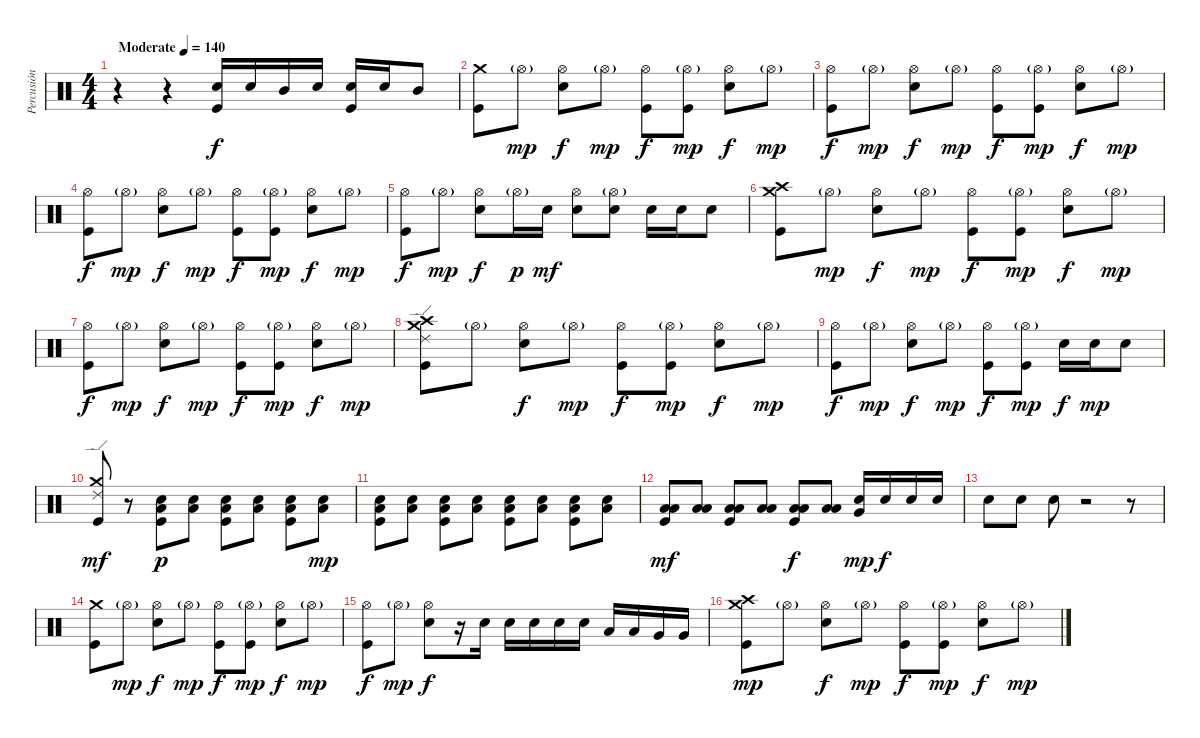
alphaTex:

\track ("Percusión" "Percusión") {instrument percussion}
\staff {score}
\articulation defaults
\ts (4 4)
\tempo (140 "Moderate")
\clef neutral
\ks c
r.4{dy f} r.4 ("Electric Snare (hit)" "Kick (hit)").16 "Electric Snare (hit)".16 "Mid Tom (hit)".16 "Electric Snare (hit)".16 ("Electric Snare (hit)" "Kick (hit)").16 "Electric Snare (hit)".16 "Mid Tom (hit)".8 |
("Crash medium (hit)" "Kick (hit)").8 "Hi-Hat (open)"{g}.8{dy mp} ("Hi-Hat (open)" "Electric Snare (hit)").8{dy f} "Hi-Hat (open)"{g}.8{dy mp} ("Hi-Hat (open)" "Kick (hit)").8{dy f} ("Hi-Hat (open)"{g} "Kick (hit)").8{dy mp} ("Hi-Hat (open)" "Electric Snare (hit)").8{dy f} "Hi-Hat (open)"{g}.8{dy mp} |
("Hi-Hat (open)" "Kick (hit)").8{dy f} "Hi-Hat (open)"{g}.8{dy mp} ("Hi-Hat (open)" "Electric Snare (hit)").8{dy f} "Hi-Hat (open)"{g}.8{dy mp} ("Hi-Hat (open)" "Kick (hit)").8{dy f} ("Hi-Hat (open)"{g} "Kick (hit)").8{dy mp} ("Hi-Hat (open)" "Electric Snare (hit)").8{dy f} "Hi-Hat (open)"{g}.8{dy mp} |
("Hi-Hat (open)" "Kick (hit)").8{dy f} "Hi-Hat (open)"{g}.8{dy mp} ("Hi-Hat (open)" "Electric Snare (hit)").8{dy f} "Hi-Hat (open)"{g}.8{dy mp} ("Hi-Hat (open)" "Kick (hit)").8{dy f} ("Hi-Hat (open)"{g} "Kick (hit)").8{dy mp} ("Hi-Hat (open)" "Electric Snare (hit)").8{dy f} "Hi-Hat (open)"{g}.8{dy mp} |
("Hi-Hat (open)" "Kick (hit)").8{dy f} "Hi-Hat (open)"{g}.8{dy mp} ("Hi-Hat (open)" "Electric Snare (hit)").8{dy f} "Hi-Hat (open)"{g}.16{dy p} "Electric Snare (hit)".16{dy mf} ("Hi-Hat (open)" "Electric Snare (hit)").8 ("Hi-Hat (open)"{g} "Electric Snare (hit)").8 "Electric Snare (hit)".16 "Electric Snare (hit)".16 "Electric Snare (hit)".8 |
("Crash medium (hit)" "Kick (hit)" "Crash high (hit)").8 "Hi-Hat (open)"{g}.8{dy mp} ("Hi-Hat (open)" "Electric Snare (hit)").8{dy f} "Hi-Hat (open)"{g}.8{dy mp} ("Hi-Hat (open)" "Kick (hit)").8{dy f} ("Hi-Hat (open)"{g} "Kick (hit)").8{dy mp} ("Hi-Hat (open)" "Electric Snare (hit)").8{dy f} "Hi-Hat (open)"{g}.8{dy mp} |
("Hi-Hat (open)" "Kick (hit)").8{dy f} "Hi-Hat (open)"{g}.8{dy mp} ("Hi-Hat (open)" "Electric Snare (hit)").8{dy f} "Hi-Hat (open)"{g}.8{dy mp} ("Hi-Hat (open)" "Kick (hit)").8{dy f} ("Hi-Hat (open)"{g} "Kick (hit)").8{dy mp} ("Hi-Hat (open)" "Electric Snare (hit)").8{dy f} "Hi-Hat (open)"{g}.8{dy mp} |
("Crash medium (hit)" "Kick (hit)" "Ride (edge) 2" "Crash high (hit)").8 "Hi-Hat (open)"{g}.8 ("Hi-Hat (open)" "Electric Snare (hit)").8{dy f} "Hi-Hat (open)"{g}.8{dy mp} ("Hi-Hat (open)" "Kick (hit)").8{dy f} ("Hi-Hat (open)"{g} "Kick (hit)").8{dy mp} ("Hi-Hat (open)" "Electric Snare (hit)").8{dy f} "Hi-Hat (open)"{g}.8{dy mp} |
("Hi-Hat (open)" "Kick (hit)").8{dy f} "Hi-Hat (open)"{g}.8{dy mp} ("Hi-Hat (open)" "Electric Snare (hit)").8{dy f} "Hi-Hat (open)"{g}.8{dy mp} ("Hi-Hat (open)" "Kick (hit)").8{dy f} ("Hi-Hat (open)"{g} "Kick (hit)").8{dy mp} "Electric Snare (hit)".16{dy f} "Electric Snare (hit)".16{dy mp} "Electric Snare (hit)".8 |
("Kick (hit)" "Crash medium (hit)" "Ride (edge) 2").8{dy mf} r.8 ("Kick (hit)" "Low Floor Tom (hit)" "Electric Snare (hit)").8{dy p} ("Low Floor Tom (hit)" "Electric Snare (hit)").8 ("Kick (hit)" "Low Floor Tom (hit)" "Electric Snare (hit)").8 ("Low Floor Tom (hit)" "Electric Snare (hit)").8 ("Kick (hit)" "Low Floor Tom (hit)" "Electric Snare (hit)").8 ("Low Floor Tom (hit)" "Electric Snare (hit)").8{dy mp} |
("Kick (hit)" "Low Floor Tom (hit)" "Electric Snare (hit)").8 ("Low Floor Tom (hit)" "Electric Snare (hit)").8 ("Kick (hit)" "Low Floor Tom (hit)" "Electric Snare (hit)").8 ("Low Floor Tom (hit)" "Electric Snare (hit)").8 ("Kick (hit)" "Low Floor Tom (hit)" "Electric Snare (hit)").8 ("Low Floor Tom (hit)" "Electric Snare (hit)").8 ("Kick (hit)" "Low Floor Tom (hit)" "Electric Snare (hit)").8 ("Low Floor Tom (hit)" "Electric Snare (hit)").8 |
("Kick (hit)" "Low Floor Tom (hit)" "Low Tom (hit)").8{dy mf} ("Low Floor Tom (hit)" "Low Tom (hit)").8 ("Kick (hit)" "Low Floor Tom (hit)" "Low Tom (hit)").8 ("Low Floor Tom (hit)" "Low Tom (hit)").8 ("Kick (hit)" "Low Floor Tom (hit)" "Low Tom (hit)").8{dy f} ("Low Floor Tom (hit)" "Low Tom (hit)").8 ("Electric Snare (hit)" "Very Low Tom (hit)").16{dy mp} "Electric Snare (hit)".16{dy f} "Electric Snare (hit)".16 "Electric Snare (hit)".16 |
"Electric Snare (hit)".8 "Electric Snare (hit)".8 "Electric Snare (hit)".8 r.2 r.8 |
("Crash medium (hit)" "Kick (hit)").8 "Hi-Hat (open)"{g}.8{dy mp} ("Hi-Hat (open)" "Electric Snare (hit)").8{dy f} "Hi-Hat (open)"{g}.8{dy mp} ("Hi-Hat (open)" "Kick (hit)").8{dy f} ("Hi-Hat (open)"{g} "Kick (hit)").8{dy mp} ("Hi-Hat (open)" "Electric Snare (hit)").8{dy f} "Hi-Hat (open)"{g}.8{dy mp} |
("Hi-Hat (open)" "Kick (hit)").8{dy f} "Hi-Hat (open)"{g}.8{dy mp} ("Hi-Hat (open)" "Electric Snare (hit)").8{dy f} r.16 "Electric Snare (hit)".16 "Electric Snare (hit)".16 "Electric Snare (hit)".16 "Electric Snare (hit)".16 "Electric Snare (hit)".16 "Low Tom (hit)".16 "Low Tom (hit)".16 "Very Low Tom (hit)".16 "Very Low Tom (hit)".16 |
("Crash high (hit)" "Kick (hit)" "Crash medium (hit)").8{dy mp} "Hi-Hat (open)"{g}.8 ("Hi-Hat (open)" "Electric Snare (hit)").8{dy f} "Hi-Hat (open)"{g}.8{dy mp} ("Hi-Hat (open)" "Kick (hit)").8{dy f} ("Hi-Hat (open)"{g} "Kick (hit)").8{dy mp} ("Hi-Hat (open)" "Electric Snare (hit)").8{dy f} "Hi-Hat (open)"{g}.8{dy mp}
